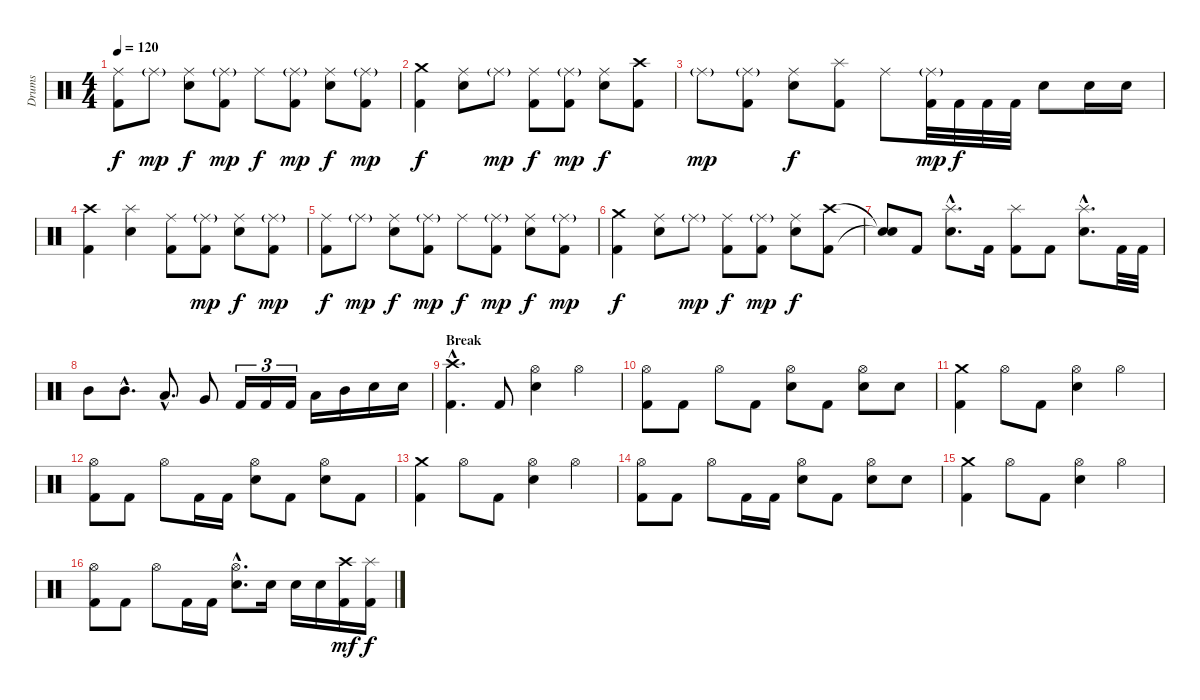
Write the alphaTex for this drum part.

\track ("Drums" "Drums") {instrument percussion}
\staff {score}
\articulation defaults
\ts (4 4)
\tempo 120
\clef neutral
\ks c
("Ride (middle)" "Kick (hit) 2").8{dy f} "Ride (middle)"{g}.8{dy mp} ("Ride (middle)" "Snare (hit) 2").8{dy f} ("Ride (middle)"{g} "Kick (hit) 2").8{dy mp} "Ride (middle)".8{dy f} ("Ride (middle)"{g} "Kick (hit) 2").8{dy mp} ("Ride (middle)" "Snare (hit) 2").8{dy f} ("Ride (middle)"{g} "Kick (hit) 2").8{dy mp} |
("Crash medium (hit)" "Kick (hit) 2").4{dy f} ("Ride (middle)" "Snare (hit) 2").8 "Ride (middle)"{g}.8{dy mp} ("Ride (middle)" "Kick (hit) 2").8{dy f} ("Ride (middle)"{g} "Kick (hit) 2").8{dy mp} ("Ride (middle)" "Snare (hit) 2").8{dy f} ("Crash high (hit)" "Kick (hit) 2").8 |
"Ride (middle)"{g}.8{dy mp} ("Ride (middle)"{g} "Kick (hit) 2").8 ("Ride (middle)" "Snare (hit) 2").8{dy f} ("Splash (hit)" "Kick (hit) 2").8 "Ride (middle)".8 ("Ride (middle)"{g} "Kick (hit) 2").32{dy mp} "Kick (hit) 2".32{dy f} "Kick (hit) 2".32 "Kick (hit) 2".32 "Snare (hit) 2".8 "Snare (hit) 2".16 "Snare (hit) 2".16 |
("Crash high (hit)" "Kick (hit) 2").4 ("Splash (hit)" "Snare (hit) 2").4 ("Ride (middle)" "Kick (hit) 2").8 ("Ride (middle)"{g} "Kick (hit) 2").8{dy mp} ("Ride (middle)" "Snare (hit) 2").8{dy f} ("Ride (middle)"{g} "Kick (hit) 2").8{dy mp} |
("Ride (middle)" "Kick (hit) 2").8{dy f} "Ride (middle)"{g}.8{dy mp} ("Ride (middle)" "Snare (hit) 2").8{dy f} ("Ride (middle)"{g} "Kick (hit) 2").8{dy mp} "Ride (middle)".8{dy f} ("Ride (middle)"{g} "Kick (hit) 2").8{dy mp} ("Ride (middle)" "Snare (hit) 2").8{dy f} ("Ride (middle)"{g} "Kick (hit) 2").8{dy mp} |
("Crash medium (hit)" "Kick (hit) 2").4{dy f} ("Ride (middle)" "Snare (hit) 2").8 "Ride (middle)"{g}.8{dy mp} ("Ride (middle)" "Kick (hit) 2").8{dy f} ("Ride (middle)"{g} "Kick (hit) 2").8{dy mp} ("Ride (middle)" "Snare (hit) 2").8{dy f} ("Crash high (hit)" "Kick (hit) 2").8 |
("Snare (hit)"{t} "Snare (hit)"{t}).8 "Kick (hit) 2".8 ("Splash (hit)"{hac} "Snare (hit) 2"{hac}).8{d} "Kick (hit) 2".16 ("Splash (hit)" "Kick (hit) 2").8 "Kick (hit) 2".8 ("Splash (hit)"{hac} "Snare (hit) 2"{hac}).8{d} "Kick (hit) 2".32 "Kick (hit) 2".32 |
"Mid Tom (hit)".8 "Mid Tom (hit)"{hac}.8{d} "Low Tom (hit)"{hac}.8{d} "Very Low Tom (hit)".8 "Kick (hit) 2".16{tu (3 2)} "Kick (hit) 2".16{tu (3 2)} "Kick (hit) 2".16{tu (3 2)} "Low Tom (hit)".16 "Mid Tom (hit)".16 "Snare (hit) 2".16 "Snare (hit) 2".16 |
\section ("" "Break")
("Crash high (hit)"{hac} "Kick (hit) 2"{hac}).4{d} "Kick (hit) 2".8 ("Hi-Hat (open)" "Snare (hit) 2").4 "Hi-Hat (open)".4 |
("Hi-Hat (open)" "Kick (hit) 2").8 "Kick (hit) 2".8 "Hi-Hat (open)".8 "Kick (hit) 2".8 ("Hi-Hat (open)" "Snare (hit) 2").8 "Kick (hit) 2".8 ("Hi-Hat (open)" "Snare (hit) 2").8 "Snare (hit) 2".8 |
("Crash medium (hit)" "Kick (hit) 2").4 "Hi-Hat (open)".8 "Kick (hit) 2".8 ("Hi-Hat (open)" "Snare (hit) 2").4 "Hi-Hat (open)".4 |
("Hi-Hat (open)" "Kick (hit) 2").8 "Kick (hit) 2".8 "Hi-Hat (open)".8 "Kick (hit) 2".16 "Kick (hit) 2".16 ("Hi-Hat (open)" "Snare (hit) 2").8 "Kick (hit) 2".8 ("Hi-Hat (open)" "Snare (hit) 2").8 "Kick (hit) 2".8 |
("Crash medium (hit)" "Kick (hit) 2").4 "Hi-Hat (open)".8 "Kick (hit) 2".8 ("Hi-Hat (open)" "Snare (hit) 2").4 "Hi-Hat (open)".4 |
("Hi-Hat (open)" "Kick (hit) 2").8 "Kick (hit) 2".8 "Hi-Hat (open)".8 "Kick (hit) 2".16 "Kick (hit) 2".16 ("Hi-Hat (open)" "Snare (hit) 2").8 "Kick (hit) 2".8 ("Hi-Hat (open)" "Snare (hit) 2").8 "Snare (hit) 2".8 |
("Crash medium (hit)" "Kick (hit) 2").4 "Hi-Hat (open)".8 "Kick (hit) 2".8 ("Hi-Hat (open)" "Snare (hit) 2").4 "Hi-Hat (open)".4 |
("Hi-Hat (open)" "Kick (hit) 2").8 "Kick (hit) 2".8 "Hi-Hat (open)".8 "Kick (hit) 2".16 "Kick (hit) 2".16 ("Hi-Hat (open)"{hac} "Snare (hit) 2"{hac}).8{d} "Snare (hit) 2".16 "Snare (hit) 2".16 "Snare (hit) 2".16 ("Crash high (hit)" "Kick (hit) 2").16{dy mf} ("Splash (hit)" "Kick (hit) 2").16{dy f}
